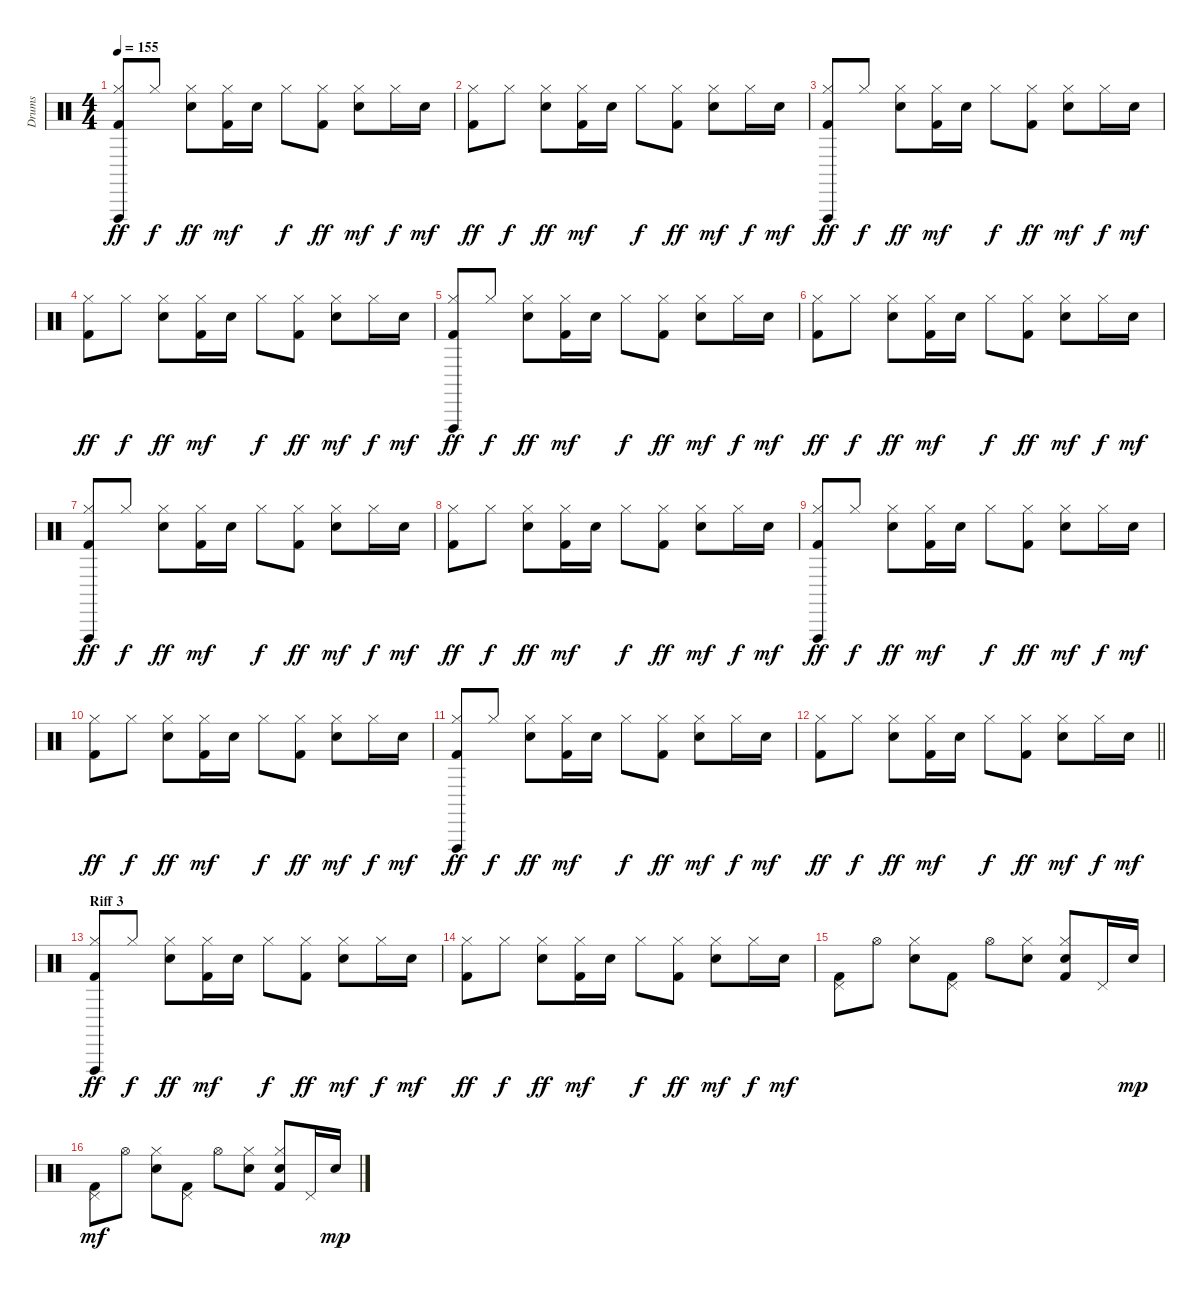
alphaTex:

\track ("Drums" "Drums") {instrument percussion}
\staff {score}
\articulation defaults
\ts (4 4)
\tempo 155
\clef neutral
\ks c
("Kick (hit) 2" "Hi-Hat (closed)" "Vibraslap (hit)").8{dy ff} "Hi-Hat (closed)".8{dy f} ("Snare (hit) 2" "Hi-Hat (closed)").8{dy ff} ("Kick (hit) 2" "Hi-Hat (closed)").16{dy mf} "Snare (hit) 2".16 "Hi-Hat (closed)".8{dy f} ("Kick (hit) 2" "Hi-Hat (closed)").8{dy ff} ("Snare (hit) 2" "Hi-Hat (closed)").8{dy mf} "Hi-Hat (closed)".16{dy f} "Snare (hit) 2".16{dy mf} |
("Kick (hit) 2" "Hi-Hat (closed)").8{dy ff} "Hi-Hat (closed)".8{dy f} ("Snare (hit) 2" "Hi-Hat (closed)").8{dy ff} ("Kick (hit) 2" "Hi-Hat (closed)").16{dy mf} "Snare (hit) 2".16 "Hi-Hat (closed)".8{dy f} ("Kick (hit) 2" "Hi-Hat (closed)").8{dy ff} ("Snare (hit) 2" "Hi-Hat (closed)").8{dy mf} "Hi-Hat (closed)".16{dy f} "Snare (hit) 2".16{dy mf} |
("Kick (hit) 2" "Hi-Hat (closed)" "Vibraslap (hit)").8{dy ff} "Hi-Hat (closed)".8{dy f} ("Snare (hit) 2" "Hi-Hat (closed)").8{dy ff} ("Kick (hit) 2" "Hi-Hat (closed)").16{dy mf} "Snare (hit) 2".16 "Hi-Hat (closed)".8{dy f} ("Kick (hit) 2" "Hi-Hat (closed)").8{dy ff} ("Snare (hit) 2" "Hi-Hat (closed)").8{dy mf} "Hi-Hat (closed)".16{dy f} "Snare (hit) 2".16{dy mf} |
("Kick (hit) 2" "Hi-Hat (closed)").8{dy ff} "Hi-Hat (closed)".8{dy f} ("Snare (hit) 2" "Hi-Hat (closed)").8{dy ff} ("Kick (hit) 2" "Hi-Hat (closed)").16{dy mf} "Snare (hit) 2".16 "Hi-Hat (closed)".8{dy f} ("Kick (hit) 2" "Hi-Hat (closed)").8{dy ff} ("Snare (hit) 2" "Hi-Hat (closed)").8{dy mf} "Hi-Hat (closed)".16{dy f} "Snare (hit) 2".16{dy mf} |
("Kick (hit) 2" "Hi-Hat (closed)" "Vibraslap (hit)").8{dy ff} "Hi-Hat (closed)".8{dy f} ("Snare (hit) 2" "Hi-Hat (closed)").8{dy ff} ("Kick (hit) 2" "Hi-Hat (closed)").16{dy mf} "Snare (hit) 2".16 "Hi-Hat (closed)".8{dy f} ("Kick (hit) 2" "Hi-Hat (closed)").8{dy ff} ("Snare (hit) 2" "Hi-Hat (closed)").8{dy mf} "Hi-Hat (closed)".16{dy f} "Snare (hit) 2".16{dy mf} |
("Kick (hit) 2" "Hi-Hat (closed)").8{dy ff} "Hi-Hat (closed)".8{dy f} ("Snare (hit) 2" "Hi-Hat (closed)").8{dy ff} ("Kick (hit) 2" "Hi-Hat (closed)").16{dy mf} "Snare (hit) 2".16 "Hi-Hat (closed)".8{dy f} ("Kick (hit) 2" "Hi-Hat (closed)").8{dy ff} ("Snare (hit) 2" "Hi-Hat (closed)").8{dy mf} "Hi-Hat (closed)".16{dy f} "Snare (hit) 2".16{dy mf} |
("Kick (hit) 2" "Hi-Hat (closed)" "Vibraslap (hit)").8{dy ff} "Hi-Hat (closed)".8{dy f} ("Snare (hit) 2" "Hi-Hat (closed)").8{dy ff} ("Kick (hit) 2" "Hi-Hat (closed)").16{dy mf} "Snare (hit) 2".16 "Hi-Hat (closed)".8{dy f} ("Kick (hit) 2" "Hi-Hat (closed)").8{dy ff} ("Snare (hit) 2" "Hi-Hat (closed)").8{dy mf} "Hi-Hat (closed)".16{dy f} "Snare (hit) 2".16{dy mf} |
("Kick (hit) 2" "Hi-Hat (closed)").8{dy ff} "Hi-Hat (closed)".8{dy f} ("Snare (hit) 2" "Hi-Hat (closed)").8{dy ff} ("Kick (hit) 2" "Hi-Hat (closed)").16{dy mf} "Snare (hit) 2".16 "Hi-Hat (closed)".8{dy f} ("Kick (hit) 2" "Hi-Hat (closed)").8{dy ff} ("Snare (hit) 2" "Hi-Hat (closed)").8{dy mf} "Hi-Hat (closed)".16{dy f} "Snare (hit) 2".16{dy mf} |
("Kick (hit) 2" "Hi-Hat (closed)" "Vibraslap (hit)").8{dy ff} "Hi-Hat (closed)".8{dy f} ("Snare (hit) 2" "Hi-Hat (closed)").8{dy ff} ("Kick (hit) 2" "Hi-Hat (closed)").16{dy mf} "Snare (hit) 2".16 "Hi-Hat (closed)".8{dy f} ("Kick (hit) 2" "Hi-Hat (closed)").8{dy ff} ("Snare (hit) 2" "Hi-Hat (closed)").8{dy mf} "Hi-Hat (closed)".16{dy f} "Snare (hit) 2".16{dy mf} |
("Kick (hit) 2" "Hi-Hat (closed)").8{dy ff} "Hi-Hat (closed)".8{dy f} ("Snare (hit) 2" "Hi-Hat (closed)").8{dy ff} ("Kick (hit) 2" "Hi-Hat (closed)").16{dy mf} "Snare (hit) 2".16 "Hi-Hat (closed)".8{dy f} ("Kick (hit) 2" "Hi-Hat (closed)").8{dy ff} ("Snare (hit) 2" "Hi-Hat (closed)").8{dy mf} "Hi-Hat (closed)".16{dy f} "Snare (hit) 2".16{dy mf} |
("Kick (hit) 2" "Hi-Hat (closed)" "Vibraslap (hit)").8{dy ff} "Hi-Hat (closed)".8{dy f} ("Snare (hit) 2" "Hi-Hat (closed)").8{dy ff} ("Kick (hit) 2" "Hi-Hat (closed)").16{dy mf} "Snare (hit) 2".16 "Hi-Hat (closed)".8{dy f} ("Kick (hit) 2" "Hi-Hat (closed)").8{dy ff} ("Snare (hit) 2" "Hi-Hat (closed)").8{dy mf} "Hi-Hat (closed)".16{dy f} "Snare (hit) 2".16{dy mf} |
\barLineRight lightlight
("Kick (hit) 2" "Hi-Hat (closed)").8{dy ff} "Hi-Hat (closed)".8{dy f} ("Snare (hit) 2" "Hi-Hat (closed)").8{dy ff} ("Kick (hit) 2" "Hi-Hat (closed)").16{dy mf} "Snare (hit) 2".16 "Hi-Hat (closed)".8{dy f} ("Kick (hit) 2" "Hi-Hat (closed)").8{dy ff} ("Snare (hit) 2" "Hi-Hat (closed)").8{dy mf} "Hi-Hat (closed)".16{dy f} "Snare (hit) 2".16{dy mf} |
\section ("" "Riff 3")
("Kick (hit) 2" "Hi-Hat (closed)" "Vibraslap (hit)").8{dy ff} "Hi-Hat (closed)".8{dy f} ("Snare (hit) 2" "Hi-Hat (closed)").8{dy ff} ("Kick (hit) 2" "Hi-Hat (closed)").16{dy mf} "Snare (hit) 2".16 "Hi-Hat (closed)".8{dy f} ("Kick (hit) 2" "Hi-Hat (closed)").8{dy ff} ("Snare (hit) 2" "Hi-Hat (closed)").8{dy mf} "Hi-Hat (closed)".16{dy f} "Snare (hit) 2".16{dy mf} |
("Kick (hit) 2" "Hi-Hat (closed)").8{dy ff} "Hi-Hat (closed)".8{dy f} ("Snare (hit) 2" "Hi-Hat (closed)").8{dy ff} ("Kick (hit) 2" "Hi-Hat (closed)").16{dy mf} "Snare (hit) 2".16 "Hi-Hat (closed)".8{dy f} ("Kick (hit) 2" "Hi-Hat (closed)").8{dy ff} ("Snare (hit) 2" "Hi-Hat (closed)").8{dy mf} "Hi-Hat (closed)".16{dy f} "Snare (hit) 2".16{dy mf} |
("Kick (hit) 2" "Pedal Hi-Hat (hit)").8 "Hi-Hat (open)".8 ("Snare (hit) 2" "Hi-Hat (closed)").8 ("Kick (hit) 2" "Pedal Hi-Hat (hit)").8 "Hi-Hat (open)".8 ("Snare (hit) 2" "Hi-Hat (closed)").8 ("Kick (hit) 2" "Snare (hit) 2" "Hi-Hat (closed)").8 "Pedal Hi-Hat (hit)".16 "Snare (hit) 2".16{dy mp} |
("Kick (hit) 2" "Pedal Hi-Hat (hit)").8{dy mf} "Hi-Hat (open)".8 ("Snare (hit) 2" "Hi-Hat (closed)").8 ("Kick (hit) 2" "Pedal Hi-Hat (hit)").8 "Hi-Hat (open)".8 ("Snare (hit) 2" "Hi-Hat (closed)").8 ("Kick (hit) 2" "Snare (hit) 2" "Hi-Hat (closed)").8 "Pedal Hi-Hat (hit)".16 "Snare (hit) 2".16{dy mp}
